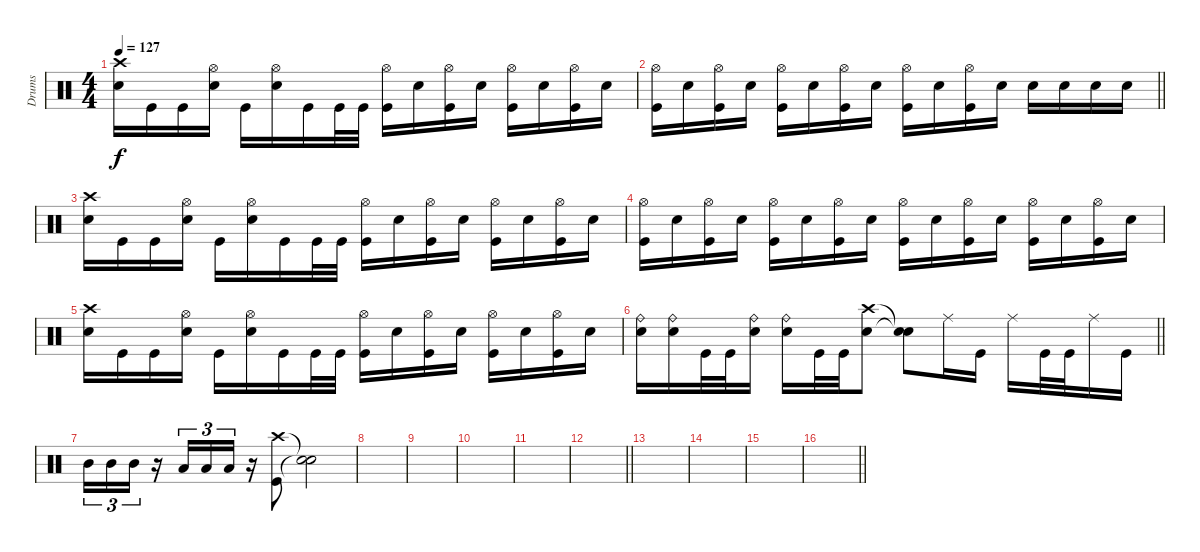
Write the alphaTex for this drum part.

\track ("Drums" "Drums") {instrument percussion}
\staff
\articulation defaults
\ts (4 4)
\tempo 127
\clef neutral
\ks c
("Crash high (hit)" "Electric Snare (hit)").16{dy f} "Kick (hit)".16 "Kick (hit)".16 ("Hi-Hat (open)" "Electric Snare (hit)").16 "Kick (hit)".16 ("Hi-Hat (open)" "Electric Snare (hit)").16 "Kick (hit)".16 "Kick (hit)".32 "Kick (hit)".32 ("Hi-Hat (open)" "Kick (hit)").16 "Electric Snare (hit)".16 ("Hi-Hat (open)" "Kick (hit)").16 "Electric Snare (hit)".16 ("Hi-Hat (open)" "Kick (hit)").16 "Electric Snare (hit)".16 ("Hi-Hat (open)" "Kick (hit)").16 "Electric Snare (hit)".16 |
\barLineRight lightlight
("Hi-Hat (open)" "Kick (hit)").16 "Electric Snare (hit)".16 ("Hi-Hat (open)" "Kick (hit)").16 "Electric Snare (hit)".16 ("Hi-Hat (open)" "Kick (hit)").16 "Electric Snare (hit)".16 ("Hi-Hat (open)" "Kick (hit)").16 "Electric Snare (hit)".16 ("Hi-Hat (open)" "Kick (hit)").16 "Electric Snare (hit)".16 ("Hi-Hat (open)" "Kick (hit)").16 "Electric Snare (hit)".16 "Electric Snare (hit)".16 "Electric Snare (hit)".16 "Electric Snare (hit)".16 "Electric Snare (hit)".16 |
("Crash high (hit)" "Electric Snare (hit)").16 "Kick (hit)".16 "Kick (hit)".16 ("Hi-Hat (open)" "Electric Snare (hit)").16 "Kick (hit)".16 ("Hi-Hat (open)" "Electric Snare (hit)").16 "Kick (hit)".16 "Kick (hit)".32 "Kick (hit)".32 ("Hi-Hat (open)" "Kick (hit)").16 "Electric Snare (hit)".16 ("Hi-Hat (open)" "Kick (hit)").16 "Electric Snare (hit)".16 ("Hi-Hat (open)" "Kick (hit)").16 "Electric Snare (hit)".16 ("Hi-Hat (open)" "Kick (hit)").16 "Electric Snare (hit)".16 |
("Hi-Hat (open)" "Kick (hit)").16 "Electric Snare (hit)".16 ("Hi-Hat (open)" "Kick (hit)").16 "Electric Snare (hit)".16 ("Hi-Hat (open)" "Kick (hit)").16 "Electric Snare (hit)".16 ("Hi-Hat (open)" "Kick (hit)").16 "Electric Snare (hit)".16 ("Hi-Hat (open)" "Kick (hit)").16 "Electric Snare (hit)".16 ("Hi-Hat (open)" "Kick (hit)").16 "Electric Snare (hit)".16 ("Hi-Hat (open)" "Kick (hit)").16 "Electric Snare (hit)".16 ("Hi-Hat (open)" "Kick (hit)").16 "Electric Snare (hit)".16 |
("Crash high (hit)" "Electric Snare (hit)").16 "Kick (hit)".16 "Kick (hit)".16 ("Hi-Hat (open)" "Electric Snare (hit)").16 "Kick (hit)".16 ("Hi-Hat (open)" "Electric Snare (hit)").16 "Kick (hit)".16 "Kick (hit)".32 "Kick (hit)".32 ("Hi-Hat (open)" "Kick (hit)").16 "Electric Snare (hit)".16 ("Hi-Hat (open)" "Kick (hit)").16 "Electric Snare (hit)".16 ("Hi-Hat (open)" "Kick (hit)").16 "Electric Snare (hit)".16 ("Hi-Hat (open)" "Kick (hit)").16 "Electric Snare (hit)".16 |
\barLineRight lightlight
("Ride (bell)" "Electric Snare (hit)").16 ("Ride (bell)" "Electric Snare (hit)").16 "Kick (hit)".32 "Kick (hit)".32 ("Ride (bell)" "Electric Snare (hit)").16 ("Ride (bell)" "Electric Snare (hit)").16 "Kick (hit)".32 "Kick (hit)".32 ("Crash high (hit)" "Electric Snare (hit)").8 ("Snare (hit)"{t} "Snare (hit)"{t}).8 "Ride (middle)".16 "Kick (hit)".16 "Ride (middle)".16 "Kick (hit)".32 "Kick (hit)".32 "Ride (middle)".16 "Kick (hit)".16 |
"Mid Tom (hit)".16{tu (3 2)} "Mid Tom (hit)".16{tu (3 2)} "Mid Tom (hit)".16{tu (3 2)} r.16 "Low Tom (hit)".16{tu (3 2)} "Low Tom (hit)".16{tu (3 2)} "Low Tom (hit)".16{tu (3 2)} r.16 ("Crash high (hit)" "Kick (hit)").8 ("Snare (hit)"{t} "Snare (hit)"{t}).2 |
|
|
|
|
\barLineRight lightlight
|
|
|
|
\barLineRight lightlight
